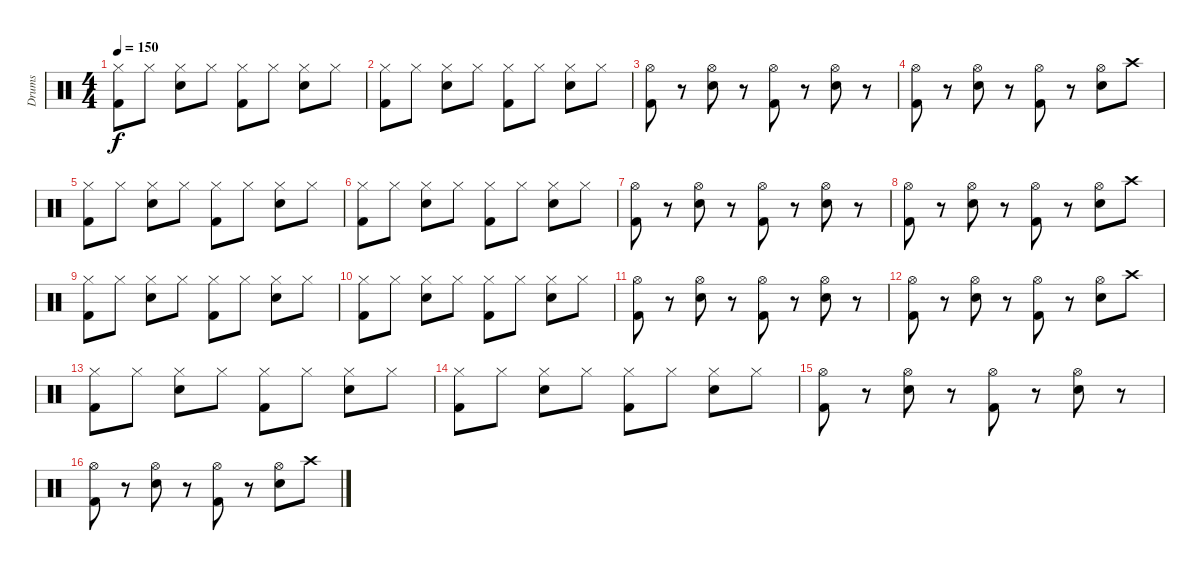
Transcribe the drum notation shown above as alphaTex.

\track ("Drums" "Drums") {instrument percussion}
\staff {score}
\articulation defaults
\ts (4 4)
\tempo 150
\clef neutral
\ks c
("Hi-Hat (closed)" "Kick (hit) 2").8{dy f} "Hi-Hat (closed)".8 ("Hi-Hat (closed)" "Electric Snare (hit)").8 "Hi-Hat (closed)".8 ("Hi-Hat (closed)" "Kick (hit) 2").8 "Hi-Hat (closed)".8 ("Hi-Hat (closed)" "Electric Snare (hit)").8 "Hi-Hat (closed)".8 |
("Hi-Hat (closed)" "Kick (hit) 2").8 "Hi-Hat (closed)".8 ("Hi-Hat (closed)" "Electric Snare (hit)").8 "Hi-Hat (closed)".8 ("Hi-Hat (closed)" "Kick (hit) 2").8 "Hi-Hat (closed)".8 ("Hi-Hat (closed)" "Electric Snare (hit)").8 "Hi-Hat (closed)".8 |
("Hi-Hat (open)" "Kick (hit) 2").8 r.8 ("Hi-Hat (open)" "Electric Snare (hit)").8 r.8 ("Hi-Hat (open)" "Kick (hit) 2").8 r.8 ("Hi-Hat (open)" "Electric Snare (hit)").8 r.8 |
("Hi-Hat (open)" "Kick (hit) 2").8 r.8 ("Hi-Hat (open)" "Electric Snare (hit)").8 r.8 ("Hi-Hat (open)" "Kick (hit) 2").8 r.8 ("Hi-Hat (open)" "Electric Snare (hit)").8 "Crash high (hit)".8 |
("Hi-Hat (closed)" "Kick (hit) 2").8 "Hi-Hat (closed)".8 ("Hi-Hat (closed)" "Electric Snare (hit)").8 "Hi-Hat (closed)".8 ("Hi-Hat (closed)" "Kick (hit) 2").8 "Hi-Hat (closed)".8 ("Hi-Hat (closed)" "Electric Snare (hit)").8 "Hi-Hat (closed)".8 |
("Hi-Hat (closed)" "Kick (hit) 2").8 "Hi-Hat (closed)".8 ("Hi-Hat (closed)" "Electric Snare (hit)").8 "Hi-Hat (closed)".8 ("Hi-Hat (closed)" "Kick (hit) 2").8 "Hi-Hat (closed)".8 ("Hi-Hat (closed)" "Electric Snare (hit)").8 "Hi-Hat (closed)".8 |
("Hi-Hat (open)" "Kick (hit) 2").8 r.8 ("Hi-Hat (open)" "Electric Snare (hit)").8 r.8 ("Hi-Hat (open)" "Kick (hit) 2").8 r.8 ("Hi-Hat (open)" "Electric Snare (hit)").8 r.8 |
("Hi-Hat (open)" "Kick (hit) 2").8 r.8 ("Hi-Hat (open)" "Electric Snare (hit)").8 r.8 ("Hi-Hat (open)" "Kick (hit) 2").8 r.8 ("Hi-Hat (open)" "Electric Snare (hit)").8 "Crash high (hit)".8 |
("Hi-Hat (closed)" "Kick (hit) 2").8 "Hi-Hat (closed)".8 ("Hi-Hat (closed)" "Electric Snare (hit)").8 "Hi-Hat (closed)".8 ("Hi-Hat (closed)" "Kick (hit) 2").8 "Hi-Hat (closed)".8 ("Hi-Hat (closed)" "Electric Snare (hit)").8 "Hi-Hat (closed)".8 |
("Hi-Hat (closed)" "Kick (hit) 2").8 "Hi-Hat (closed)".8 ("Hi-Hat (closed)" "Electric Snare (hit)").8 "Hi-Hat (closed)".8 ("Hi-Hat (closed)" "Kick (hit) 2").8 "Hi-Hat (closed)".8 ("Hi-Hat (closed)" "Electric Snare (hit)").8 "Hi-Hat (closed)".8 |
("Hi-Hat (open)" "Kick (hit) 2").8 r.8 ("Hi-Hat (open)" "Electric Snare (hit)").8 r.8 ("Hi-Hat (open)" "Kick (hit) 2").8 r.8 ("Hi-Hat (open)" "Electric Snare (hit)").8 r.8 |
("Hi-Hat (open)" "Kick (hit) 2").8 r.8 ("Hi-Hat (open)" "Electric Snare (hit)").8 r.8 ("Hi-Hat (open)" "Kick (hit) 2").8 r.8 ("Hi-Hat (open)" "Electric Snare (hit)").8 "Crash high (hit)".8 |
("Hi-Hat (closed)" "Kick (hit) 2").8 "Hi-Hat (closed)".8 ("Hi-Hat (closed)" "Electric Snare (hit)").8 "Hi-Hat (closed)".8 ("Hi-Hat (closed)" "Kick (hit) 2").8 "Hi-Hat (closed)".8 ("Hi-Hat (closed)" "Electric Snare (hit)").8 "Hi-Hat (closed)".8 |
("Hi-Hat (closed)" "Kick (hit) 2").8 "Hi-Hat (closed)".8 ("Hi-Hat (closed)" "Electric Snare (hit)").8 "Hi-Hat (closed)".8 ("Hi-Hat (closed)" "Kick (hit) 2").8 "Hi-Hat (closed)".8 ("Hi-Hat (closed)" "Electric Snare (hit)").8 "Hi-Hat (closed)".8 |
("Hi-Hat (open)" "Kick (hit) 2").8 r.8 ("Hi-Hat (open)" "Electric Snare (hit)").8 r.8 ("Hi-Hat (open)" "Kick (hit) 2").8 r.8 ("Hi-Hat (open)" "Electric Snare (hit)").8 r.8 |
("Hi-Hat (open)" "Kick (hit) 2").8 r.8 ("Hi-Hat (open)" "Electric Snare (hit)").8 r.8 ("Hi-Hat (open)" "Kick (hit) 2").8 r.8 ("Hi-Hat (open)" "Electric Snare (hit)").8 "Crash high (hit)".8
